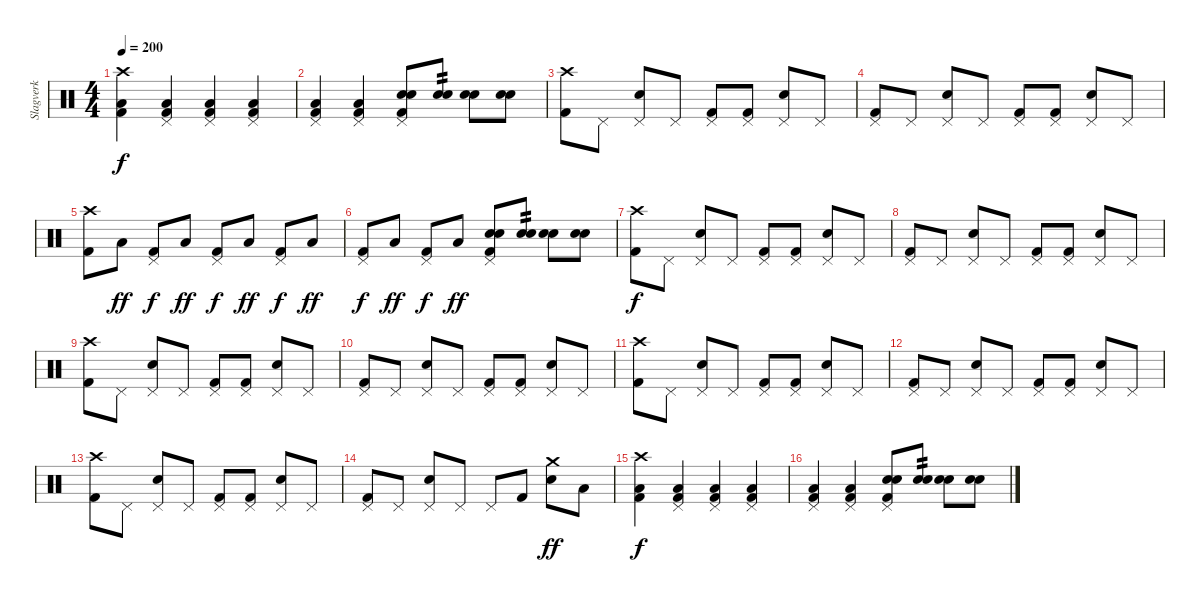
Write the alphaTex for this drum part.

\track ("Slagverk" "Slagverk") {instrument percussion}
\staff {score}
\articulation defaults
\ts (4 4)
\tempo 200
\clef neutral
\ks c
("Crash high (hit)" "Low Floor Tom (hit)" "Kick (hit) 2").4{dy f} ("Pedal Hi-Hat (hit)" "Low Floor Tom (hit)" "Kick (hit) 2").4 ("Pedal Hi-Hat (hit)" "Low Floor Tom (hit)" "Kick (hit) 2").4 ("Pedal Hi-Hat (hit)" "Low Floor Tom (hit)" "Kick (hit) 2").4 |
("Pedal Hi-Hat (hit)" "Low Floor Tom (hit)" "Kick (hit) 2").4 ("Pedal Hi-Hat (hit)" "Low Floor Tom (hit)" "Kick (hit) 2").4 ("Pedal Hi-Hat (hit)" "Snare (hit) 2" "Electric Snare (hit)" "Kick (hit) 2").8 ("Snare (hit) 2" "Electric Snare (hit)").8{tp 2} ("Snare (hit) 2" "Electric Snare (hit)").8 ("Snare (hit) 2" "Electric Snare (hit)").8 |
("Crash high (hit)" "Kick (hit) 2").8 "Pedal Hi-Hat (hit)".8 ("Pedal Hi-Hat (hit)" "Electric Snare (hit)").8 "Pedal Hi-Hat (hit)".8 ("Pedal Hi-Hat (hit)" "Kick (hit) 2").8 ("Pedal Hi-Hat (hit)" "Kick (hit) 2").8 ("Pedal Hi-Hat (hit)" "Electric Snare (hit)").8 "Pedal Hi-Hat (hit)".8 |
("Pedal Hi-Hat (hit)" "Kick (hit) 2").8 "Pedal Hi-Hat (hit)".8 ("Pedal Hi-Hat (hit)" "Electric Snare (hit)").8 "Pedal Hi-Hat (hit)".8 ("Pedal Hi-Hat (hit)" "Kick (hit) 2").8 ("Pedal Hi-Hat (hit)" "Kick (hit) 2").8 ("Pedal Hi-Hat (hit)" "Electric Snare (hit)").8 "Pedal Hi-Hat (hit)".8 |
("Crash high (hit)" "Kick (hit) 2").8 "Low Floor Tom (hit)".8{dy ff} ("Pedal Hi-Hat (hit)" "Kick (hit) 2").8{dy f} "Low Floor Tom (hit)".8{dy ff} ("Pedal Hi-Hat (hit)" "Kick (hit) 2").8{dy f} "Low Floor Tom (hit)".8{dy ff} ("Pedal Hi-Hat (hit)" "Kick (hit) 2").8{dy f} "Low Floor Tom (hit)".8{dy ff} |
("Pedal Hi-Hat (hit)" "Kick (hit) 2").8{dy f} "Low Floor Tom (hit)".8{dy ff} ("Pedal Hi-Hat (hit)" "Kick (hit) 2").8{dy f} "Low Floor Tom (hit)".8{dy ff} ("Pedal Hi-Hat (hit)" "Snare (hit) 2" "Electric Snare (hit)" "Kick (hit) 2").8 ("Snare (hit) 2" "Electric Snare (hit)").8{tp 2} ("Snare (hit) 2" "Electric Snare (hit)").8 ("Snare (hit) 2" "Electric Snare (hit)").8 |
("Crash high (hit)" "Kick (hit) 2").8{dy f} "Pedal Hi-Hat (hit)".8 ("Pedal Hi-Hat (hit)" "Electric Snare (hit)").8 "Pedal Hi-Hat (hit)".8 ("Pedal Hi-Hat (hit)" "Kick (hit) 2").8 ("Pedal Hi-Hat (hit)" "Kick (hit) 2").8 ("Pedal Hi-Hat (hit)" "Electric Snare (hit)").8 "Pedal Hi-Hat (hit)".8 |
("Pedal Hi-Hat (hit)" "Kick (hit) 2").8 "Pedal Hi-Hat (hit)".8 ("Pedal Hi-Hat (hit)" "Electric Snare (hit)").8 "Pedal Hi-Hat (hit)".8 ("Pedal Hi-Hat (hit)" "Kick (hit) 2").8 ("Pedal Hi-Hat (hit)" "Kick (hit) 2").8 ("Pedal Hi-Hat (hit)" "Electric Snare (hit)").8 "Pedal Hi-Hat (hit)".8 |
("Crash high (hit)" "Kick (hit) 2").8 "Pedal Hi-Hat (hit)".8 ("Pedal Hi-Hat (hit)" "Electric Snare (hit)").8 "Pedal Hi-Hat (hit)".8 ("Pedal Hi-Hat (hit)" "Kick (hit) 2").8 ("Pedal Hi-Hat (hit)" "Kick (hit) 2").8 ("Pedal Hi-Hat (hit)" "Electric Snare (hit)").8 "Pedal Hi-Hat (hit)".8 |
("Pedal Hi-Hat (hit)" "Kick (hit) 2").8 "Pedal Hi-Hat (hit)".8 ("Pedal Hi-Hat (hit)" "Electric Snare (hit)").8 "Pedal Hi-Hat (hit)".8 ("Pedal Hi-Hat (hit)" "Kick (hit) 2").8 ("Pedal Hi-Hat (hit)" "Kick (hit) 2").8 ("Pedal Hi-Hat (hit)" "Electric Snare (hit)").8 "Pedal Hi-Hat (hit)".8 |
("Crash high (hit)" "Kick (hit) 2").8 "Pedal Hi-Hat (hit)".8 ("Pedal Hi-Hat (hit)" "Electric Snare (hit)").8 "Pedal Hi-Hat (hit)".8 ("Pedal Hi-Hat (hit)" "Kick (hit) 2").8 ("Pedal Hi-Hat (hit)" "Kick (hit) 2").8 ("Pedal Hi-Hat (hit)" "Electric Snare (hit)").8 "Pedal Hi-Hat (hit)".8 |
("Pedal Hi-Hat (hit)" "Kick (hit) 2").8 "Pedal Hi-Hat (hit)".8 ("Pedal Hi-Hat (hit)" "Electric Snare (hit)").8 "Pedal Hi-Hat (hit)".8 ("Pedal Hi-Hat (hit)" "Kick (hit) 2").8 ("Pedal Hi-Hat (hit)" "Kick (hit) 2").8 ("Pedal Hi-Hat (hit)" "Electric Snare (hit)").8 "Pedal Hi-Hat (hit)".8 |
("Crash high (hit)" "Kick (hit) 2").8 "Pedal Hi-Hat (hit)".8 ("Pedal Hi-Hat (hit)" "Electric Snare (hit)").8 "Pedal Hi-Hat (hit)".8 ("Pedal Hi-Hat (hit)" "Kick (hit) 2").8 ("Pedal Hi-Hat (hit)" "Kick (hit) 2").8 ("Pedal Hi-Hat (hit)" "Electric Snare (hit)").8 "Pedal Hi-Hat (hit)".8 |
("Pedal Hi-Hat (hit)" "Kick (hit) 2").8 "Pedal Hi-Hat (hit)".8 ("Pedal Hi-Hat (hit)" "Electric Snare (hit)").8 "Pedal Hi-Hat (hit)".8 "Pedal Hi-Hat (hit)".8 "Kick (hit) 2".8 ("Crash medium (hit)" "Electric Snare (hit)").8{dy ff} "Low Tom (hit)".8 |
("Crash high (hit)" "Low Floor Tom (hit)" "Kick (hit) 2").4{dy f} ("Pedal Hi-Hat (hit)" "Low Floor Tom (hit)" "Kick (hit) 2").4 ("Pedal Hi-Hat (hit)" "Low Floor Tom (hit)" "Kick (hit) 2").4 ("Pedal Hi-Hat (hit)" "Low Floor Tom (hit)" "Kick (hit) 2").4 |
("Pedal Hi-Hat (hit)" "Low Floor Tom (hit)" "Kick (hit) 2").4 ("Pedal Hi-Hat (hit)" "Low Floor Tom (hit)" "Kick (hit) 2").4 ("Pedal Hi-Hat (hit)" "Snare (hit) 2" "Electric Snare (hit)" "Kick (hit) 2").8 ("Snare (hit) 2" "Electric Snare (hit)").8{tp 2} ("Snare (hit) 2" "Electric Snare (hit)").8 ("Snare (hit) 2" "Electric Snare (hit)").8
